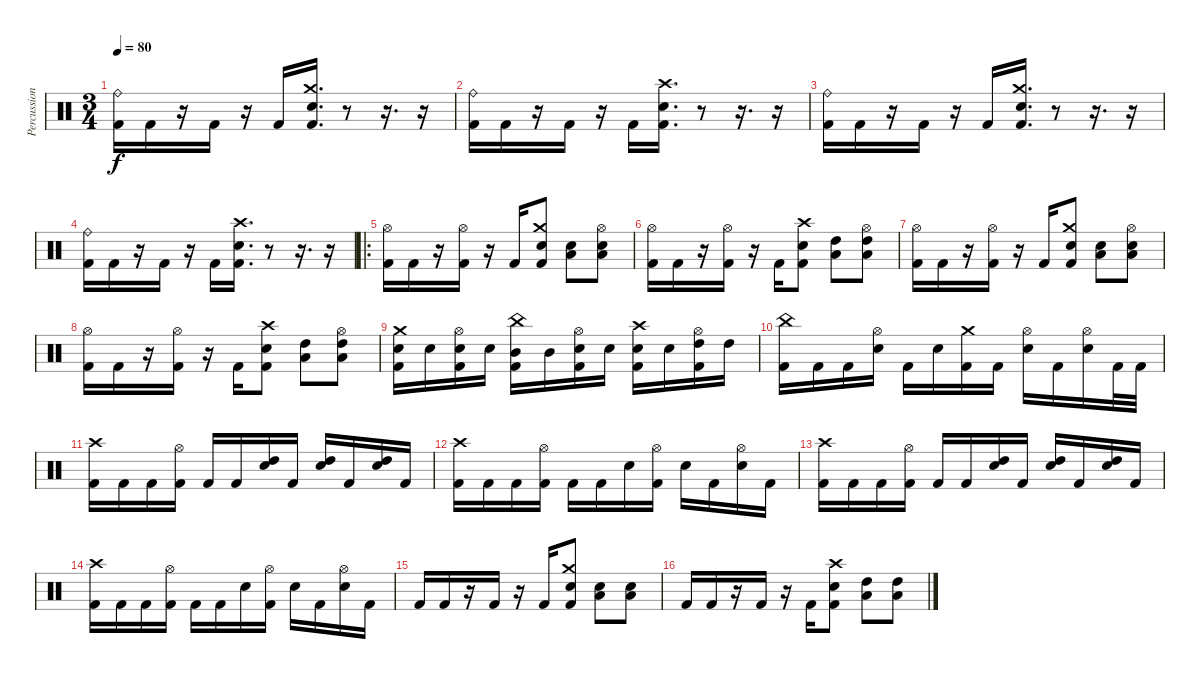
\track ("Percussion" "Percussion") {instrument percussion}
\staff {score}
\articulation defaults
\ts (3 4)
\tempo 80
\clef neutral
\ks c
("Ride (bell)" "Kick (hit) 2").16{dy f} "Kick (hit) 2".16 r.16 "Kick (hit) 2".16 r.16 "Kick (hit) 2".16 ("Crash medium (hit)" "Snare (hit) 2" "Kick (hit) 2").16{d} r.8 r.16{d} r.16 |
("Ride (bell)" "Kick (hit) 2").16 "Kick (hit) 2".16 r.16 "Kick (hit) 2".16 r.16 "Kick (hit) 2".16 ("Crash high (hit)" "Snare (hit) 2" "Kick (hit) 2").16{d} r.8 r.16{d} r.16 |
("Ride (bell)" "Kick (hit) 2").16 "Kick (hit) 2".16 r.16 "Kick (hit) 2".16 r.16 "Kick (hit) 2".16 ("Crash medium (hit)" "Snare (hit) 2" "Kick (hit) 2").16{d} r.8 r.16{d} r.16 |
("Ride (bell)" "Kick (hit) 2").16 "Kick (hit) 2".16 r.16 "Kick (hit) 2".16 r.16 "Kick (hit) 2".16 ("Crash high (hit)" "Snare (hit) 2" "Kick (hit) 2").16{d} r.8 r.16{d} r.16 |
\ro
("Hi-Hat (open)" "Kick (hit) 2").16 "Kick (hit) 2".16 r.16 ("Hi-Hat (open)" "Kick (hit) 2").16 r.16 "Kick (hit) 2".16 ("Crash medium (hit)" "Snare (hit) 2" "Kick (hit) 2").8 ("Snare (hit) 2" "Low Floor Tom (hit)").8 ("Hi-Hat (open)" "Snare (hit) 2" "Low Floor Tom (hit)").8 |
("Hi-Hat (open)" "Kick (hit) 2").16 "Kick (hit) 2".16 r.16 ("Hi-Hat (open)" "Kick (hit) 2").16 r.16 "Kick (hit) 2".16 ("Crash high (hit)" "Snare (hit) 2" "Kick (hit) 2").8 ("High Tom (hit)" "Low Floor Tom (hit)").8 ("Hi-Hat (open)" "High Tom (hit)" "Low Floor Tom (hit)").8 |
("Hi-Hat (open)" "Kick (hit) 2").16 "Kick (hit) 2".16 r.16 ("Hi-Hat (open)" "Kick (hit) 2").16 r.16 "Kick (hit) 2".16 ("Crash medium (hit)" "Snare (hit) 2" "Kick (hit) 2").8 ("Snare (hit) 2" "Low Floor Tom (hit)").8 ("Hi-Hat (open)" "Snare (hit) 2" "Low Floor Tom (hit)").8 |
("Hi-Hat (open)" "Kick (hit) 2").16 "Kick (hit) 2".16 r.16 ("Hi-Hat (open)" "Kick (hit) 2").16 r.16 "Kick (hit) 2".16 ("Crash high (hit)" "Snare (hit) 2" "Kick (hit) 2").8 ("High Tom (hit)" "Low Floor Tom (hit)").8 ("Hi-Hat (open)" "High Tom (hit)" "Low Floor Tom (hit)").8 |
("Crash medium (hit)" "Snare (hit) 2" "Kick (hit) 2").16 "Snare (hit) 2".16 ("Hi-Hat (open)" "Snare (hit) 2" "Kick (hit) 2").16 "Snare (hit) 2".16 ("China (hit)" "Mid Tom (hit)" "Kick (hit) 2").16 "Mid Tom (hit)".16 ("Hi-Hat (open)" "Snare (hit) 2" "Kick (hit) 2").16 "Snare (hit) 2".16 ("Crash high (hit)" "Snare (hit) 2" "Kick (hit) 2").16 "Snare (hit) 2".16 ("Hi-Hat (open)" "High Tom (hit)" "Kick (hit) 2").16 "High Tom (hit)".16 |
("China (hit)" "Kick (hit) 2").16 "Kick (hit) 2".16 "Kick (hit) 2".16 ("Hi-Hat (open)" "Snare (hit) 2").16 "Kick (hit) 2".16 "Snare (hit) 2".16 ("Crash medium (hit)" "Kick (hit) 2").16 "Kick (hit) 2".16 ("Hi-Hat (open)" "Snare (hit) 2").16 "Kick (hit) 2".16 ("Hi-Hat (open)" "Snare (hit) 2").16 "Kick (hit) 2".32 "Kick (hit) 2".32 |
("Crash high (hit)" "Kick (hit) 2").16 "Kick (hit) 2".16 "Kick (hit) 2".16 ("Hi-Hat (open)" "Kick (hit) 2").16 "Kick (hit) 2".16 "Kick (hit) 2".16 ("High Tom (hit)" "Snare (hit) 2").16 "Kick (hit) 2".16 ("High Tom (hit)" "Snare (hit) 2").16 "Kick (hit) 2".16 ("High Tom (hit)" "Snare (hit) 2").16 "Kick (hit) 2".16 |
("Crash high (hit)" "Kick (hit) 2").16 "Kick (hit) 2".16 "Kick (hit) 2".16 ("Hi-Hat (open)" "Kick (hit) 2").16 "Kick (hit) 2".16 "Kick (hit) 2".16 "Snare (hit) 2".16 ("Hi-Hat (open)" "Kick (hit) 2").16 "Snare (hit) 2".16 "Kick (hit) 2".16 ("Hi-Hat (open)" "Snare (hit) 2").16 "Kick (hit) 2".16 |
("Crash high (hit)" "Kick (hit) 2").16 "Kick (hit) 2".16 "Kick (hit) 2".16 ("Hi-Hat (open)" "Kick (hit) 2").16 "Kick (hit) 2".16 "Kick (hit) 2".16 ("High Tom (hit)" "Snare (hit) 2").16 "Kick (hit) 2".16 ("High Tom (hit)" "Snare (hit) 2").16 "Kick (hit) 2".16 ("High Tom (hit)" "Snare (hit) 2").16 "Kick (hit) 2".16 |
("Crash high (hit)" "Kick (hit) 2").16 "Kick (hit) 2".16 "Kick (hit) 2".16 ("Hi-Hat (open)" "Kick (hit) 2").16 "Kick (hit) 2".16 "Kick (hit) 2".16 "Snare (hit) 2".16 ("Hi-Hat (open)" "Kick (hit) 2").16 "Snare (hit) 2".16 "Kick (hit) 2".16 ("Hi-Hat (open)" "Snare (hit) 2").16 "Kick (hit) 2".16 |
"Kick (hit) 2".16 "Kick (hit) 2".16 r.16 "Kick (hit) 2".16 r.16 "Kick (hit) 2".16 ("Crash medium (hit)" "Snare (hit) 2" "Kick (hit) 2").8 ("Snare (hit) 2" "Low Floor Tom (hit)").8 ("Snare (hit) 2" "Low Floor Tom (hit)").8 |
"Kick (hit) 2".16 "Kick (hit) 2".16 r.16 "Kick (hit) 2".16 r.16 "Kick (hit) 2".16 ("Crash high (hit)" "Snare (hit) 2" "Kick (hit) 2").8 ("High Tom (hit)" "Low Floor Tom (hit)").8 ("High Tom (hit)" "Low Floor Tom (hit)").8
